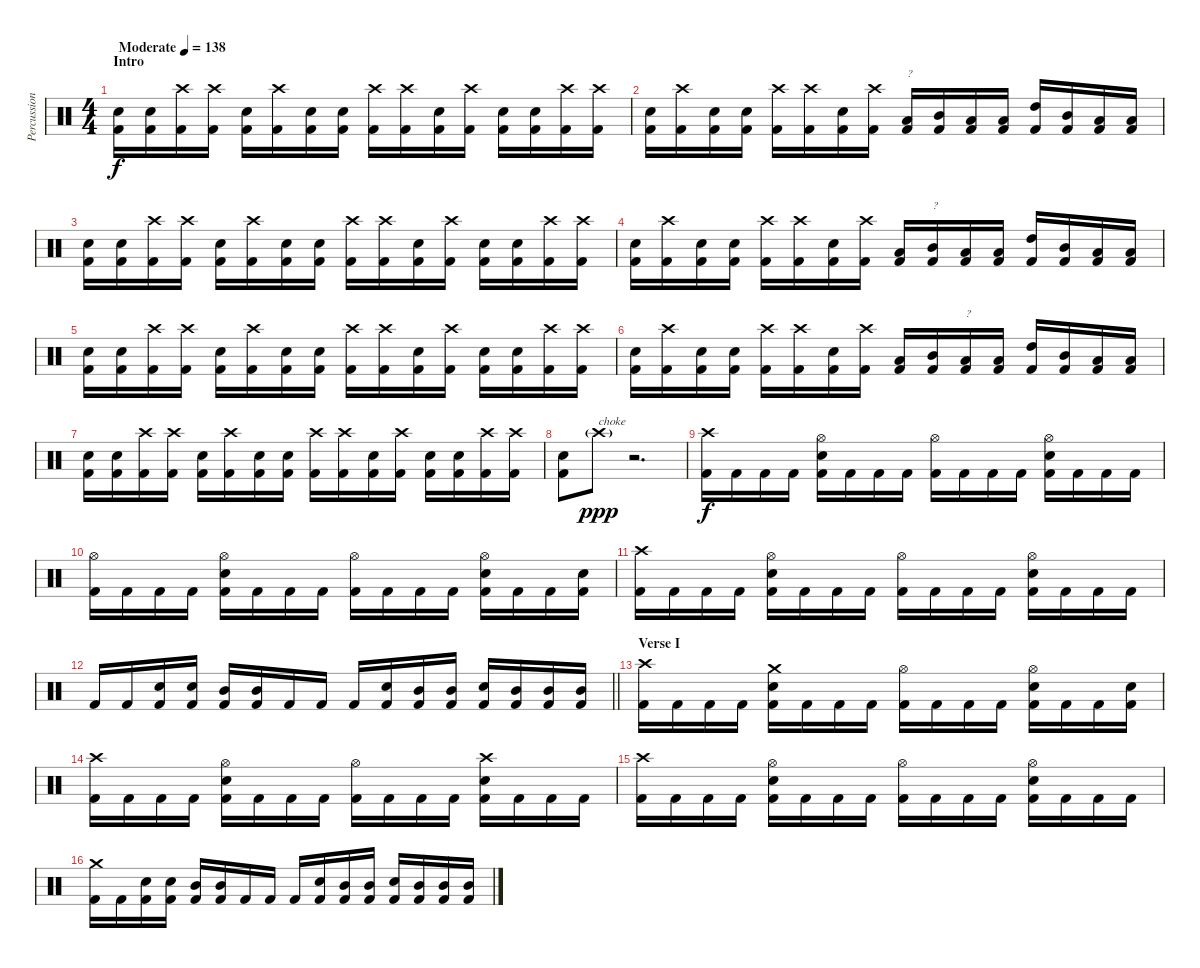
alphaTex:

\track ("Percussion" "Percussion") {instrument percussion}
\staff {score}
\articulation defaults
\ts (4 4)
\section ("" "Intro")
\tempo (138 "Moderate")
\clef neutral
\ks c
("Electric Snare (hit)" "Kick (hit) 2").16{dy f} ("Electric Snare (hit)" "Kick (hit) 2").16 ("Crash high (hit)" "Kick (hit) 2").16 ("Crash high (hit)" "Kick (hit) 2").16 ("Electric Snare (hit)" "Kick (hit) 2").16 ("Crash high (hit)" "Kick (hit) 2").16 ("Electric Snare (hit)" "Kick (hit) 2").16 ("Electric Snare (hit)" "Kick (hit) 2").16 ("Crash high (hit)" "Kick (hit) 2").16 ("Crash high (hit)" "Kick (hit) 2").16 ("Electric Snare (hit)" "Kick (hit) 2").16 ("Crash high (hit)" "Kick (hit) 2").16 ("Electric Snare (hit)" "Kick (hit) 2").16 ("Electric Snare (hit)" "Kick (hit) 2").16 ("Crash high (hit)" "Kick (hit) 2").16 ("Crash high (hit)" "Kick (hit) 2").16 |
("Electric Snare (hit)" "Kick (hit) 2").16 ("Crash high (hit)" "Kick (hit) 2").16 ("Electric Snare (hit)" "Kick (hit) 2").16 ("Electric Snare (hit)" "Kick (hit) 2").16 ("Crash high (hit)" "Kick (hit) 2").16 ("Crash high (hit)" "Kick (hit) 2").16 ("Electric Snare (hit)" "Kick (hit) 2").16 ("Crash high (hit)" "Kick (hit) 2").16 ("Low Tom (hit)" "Kick (hit) 2").16{txt "?"} ("Mid Tom (hit)" "Kick (hit) 2").16 ("Low Tom (hit)" "Kick (hit) 2").16 ("Low Tom (hit)" "Kick (hit) 2").16 ("High Tom (hit)" "Kick (hit) 2").16 ("Mid Tom (hit)" "Kick (hit) 2").16 ("Low Tom (hit)" "Kick (hit) 2").16 ("Low Tom (hit)" "Kick (hit) 2").16 |
("Electric Snare (hit)" "Kick (hit) 2").16 ("Electric Snare (hit)" "Kick (hit) 2").16 ("Crash high (hit)" "Kick (hit) 2").16 ("Crash high (hit)" "Kick (hit) 2").16 ("Electric Snare (hit)" "Kick (hit) 2").16 ("Crash high (hit)" "Kick (hit) 2").16 ("Electric Snare (hit)" "Kick (hit) 2").16 ("Electric Snare (hit)" "Kick (hit) 2").16 ("Crash high (hit)" "Kick (hit) 2").16 ("Crash high (hit)" "Kick (hit) 2").16 ("Electric Snare (hit)" "Kick (hit) 2").16 ("Crash high (hit)" "Kick (hit) 2").16 ("Electric Snare (hit)" "Kick (hit) 2").16 ("Electric Snare (hit)" "Kick (hit) 2").16 ("Crash high (hit)" "Kick (hit) 2").16 ("Crash high (hit)" "Kick (hit) 2").16 |
("Electric Snare (hit)" "Kick (hit) 2").16 ("Crash high (hit)" "Kick (hit) 2").16 ("Electric Snare (hit)" "Kick (hit) 2").16 ("Electric Snare (hit)" "Kick (hit) 2").16 ("Crash high (hit)" "Kick (hit) 2").16 ("Crash high (hit)" "Kick (hit) 2").16 ("Electric Snare (hit)" "Kick (hit) 2").16 ("Crash high (hit)" "Kick (hit) 2").16 ("Low Tom (hit)" "Kick (hit) 2").16 ("Mid Tom (hit)" "Kick (hit) 2").16{txt "?"} ("Low Tom (hit)" "Kick (hit) 2").16 ("Low Tom (hit)" "Kick (hit) 2").16 ("High Tom (hit)" "Kick (hit) 2").16 ("Mid Tom (hit)" "Kick (hit) 2").16 ("Low Tom (hit)" "Kick (hit) 2").16 ("Low Tom (hit)" "Kick (hit) 2").16 |
("Electric Snare (hit)" "Kick (hit) 2").16 ("Electric Snare (hit)" "Kick (hit) 2").16 ("Crash high (hit)" "Kick (hit) 2").16 ("Crash high (hit)" "Kick (hit) 2").16 ("Electric Snare (hit)" "Kick (hit) 2").16 ("Crash high (hit)" "Kick (hit) 2").16 ("Electric Snare (hit)" "Kick (hit) 2").16 ("Electric Snare (hit)" "Kick (hit) 2").16 ("Crash high (hit)" "Kick (hit) 2").16 ("Crash high (hit)" "Kick (hit) 2").16 ("Electric Snare (hit)" "Kick (hit) 2").16 ("Crash high (hit)" "Kick (hit) 2").16 ("Electric Snare (hit)" "Kick (hit) 2").16 ("Electric Snare (hit)" "Kick (hit) 2").16 ("Crash high (hit)" "Kick (hit) 2").16 ("Crash high (hit)" "Kick (hit) 2").16 |
("Electric Snare (hit)" "Kick (hit) 2").16 ("Crash high (hit)" "Kick (hit) 2").16 ("Electric Snare (hit)" "Kick (hit) 2").16 ("Electric Snare (hit)" "Kick (hit) 2").16 ("Crash high (hit)" "Kick (hit) 2").16 ("Crash high (hit)" "Kick (hit) 2").16 ("Electric Snare (hit)" "Kick (hit) 2").16 ("Crash high (hit)" "Kick (hit) 2").16 ("Low Tom (hit)" "Kick (hit) 2").16 ("Mid Tom (hit)" "Kick (hit) 2").16 ("Low Tom (hit)" "Kick (hit) 2").16{txt "?"} ("Low Tom (hit)" "Kick (hit) 2").16 ("High Tom (hit)" "Kick (hit) 2").16 ("Mid Tom (hit)" "Kick (hit) 2").16 ("Low Tom (hit)" "Kick (hit) 2").16 ("Low Tom (hit)" "Kick (hit) 2").16 |
("Electric Snare (hit)" "Kick (hit) 2").16 ("Electric Snare (hit)" "Kick (hit) 2").16 ("Crash high (hit)" "Kick (hit) 2").16 ("Crash high (hit)" "Kick (hit) 2").16 ("Electric Snare (hit)" "Kick (hit) 2").16 ("Crash high (hit)" "Kick (hit) 2").16 ("Electric Snare (hit)" "Kick (hit) 2").16 ("Electric Snare (hit)" "Kick (hit) 2").16 ("Crash high (hit)" "Kick (hit) 2").16 ("Crash high (hit)" "Kick (hit) 2").16 ("Electric Snare (hit)" "Kick (hit) 2").16 ("Crash high (hit)" "Kick (hit) 2").16 ("Electric Snare (hit)" "Kick (hit) 2").16 ("Electric Snare (hit)" "Kick (hit) 2").16 ("Crash high (hit)" "Kick (hit) 2").16 ("Crash high (hit)" "Kick (hit) 2").16 |
("Electric Snare (hit)" "Kick (hit) 2").8 "Crash high (hit)"{g}.8{txt "choke" dy ppp} r.2{d} |
("Crash high (hit)" "Kick (hit) 2").16{dy f} "Kick (hit) 2".16 "Kick (hit) 2".16 "Kick (hit) 2".16 ("Hi-Hat (open)" "Electric Snare (hit)" "Kick (hit) 2").16 "Kick (hit) 2".16 "Kick (hit) 2".16 "Kick (hit) 2".16 ("Hi-Hat (open)" "Kick (hit) 2").16 "Kick (hit) 2".16 "Kick (hit) 2".16 "Kick (hit) 2".16 ("Hi-Hat (open)" "Electric Snare (hit)" "Kick (hit) 2").16 "Kick (hit) 2".16 "Kick (hit) 2".16 "Kick (hit) 2".16 |
("Hi-Hat (open)" "Kick (hit) 2").16 "Kick (hit) 2".16 "Kick (hit) 2".16 "Kick (hit) 2".16 ("Hi-Hat (open)" "Electric Snare (hit)" "Kick (hit) 2").16 "Kick (hit) 2".16 "Kick (hit) 2".16 "Kick (hit) 2".16 ("Hi-Hat (open)" "Kick (hit) 2").16 "Kick (hit) 2".16 "Kick (hit) 2".16 "Kick (hit) 2".16 ("Hi-Hat (open)" "Electric Snare (hit)" "Kick (hit) 2").16 "Kick (hit) 2".16 "Kick (hit) 2".16 ("Electric Snare (hit)" "Kick (hit) 2").16 |
("Crash high (hit)" "Kick (hit) 2").16 "Kick (hit) 2".16 "Kick (hit) 2".16 "Kick (hit) 2".16 ("Hi-Hat (open)" "Electric Snare (hit)" "Kick (hit) 2").16 "Kick (hit) 2".16 "Kick (hit) 2".16 "Kick (hit) 2".16 ("Hi-Hat (open)" "Kick (hit) 2").16 "Kick (hit) 2".16 "Kick (hit) 2".16 "Kick (hit) 2".16 ("Hi-Hat (open)" "Electric Snare (hit)" "Kick (hit) 2").16 "Kick (hit) 2".16 "Kick (hit) 2".16 "Kick (hit) 2".16 |
\barLineRight lightlight "Kick (hit) 2".16 "Kick (hit) 2".16
("Electric Snare (hit)" "Kick (hit) 2").16 ("Electric Snare (hit)" "Kick (hit) 2").16 ("Mid Tom (hit)" "Kick (hit) 2").16 ("Mid Tom (hit)" "Kick (hit) 2").16 "Kick (hit) 2".16 "Kick (hit) 2".16 "Kick (hit) 2".16 ("Electric Snare (hit)" "Kick (hit) 2").16 ("Mid Tom (hit)" "Kick (hit) 2").16 ("Mid Tom (hit)" "Kick (hit) 2").16 ("Electric Snare (hit)" "Kick (hit) 2").16 ("Mid Tom (hit)" "Kick (hit) 2").16 ("Mid Tom (hit)" "Kick (hit) 2").16 ("Mid Tom (hit)" "Kick (hit) 2").16 |
\section ("" "Verse I")
("Crash high (hit)" "Kick (hit) 2").16 "Kick (hit) 2".16 "Kick (hit) 2".16 "Kick (hit) 2".16 ("Crash medium (hit)" "Electric Snare (hit)" "Kick (hit) 2").16 "Kick (hit) 2".16 "Kick (hit) 2".16 "Kick (hit) 2".16 ("Hi-Hat (open)" "Kick (hit) 2").16 "Kick (hit) 2".16 "Kick (hit) 2".16 "Kick (hit) 2".16 ("Hi-Hat (open)" "Electric Snare (hit)" "Kick (hit) 2").16 "Kick (hit) 2".16 "Kick (hit) 2".16 ("Electric Snare (hit)" "Kick (hit) 2").16 |
("Crash high (hit)" "Kick (hit) 2").16 "Kick (hit) 2".16 "Kick (hit) 2".16 "Kick (hit) 2".16 ("Hi-Hat (open)" "Electric Snare (hit)" "Kick (hit) 2").16 "Kick (hit) 2".16 "Kick (hit) 2".16 "Kick (hit) 2".16 ("Hi-Hat (open)" "Kick (hit) 2").16 "Kick (hit) 2".16 "Kick (hit) 2".16 "Kick (hit) 2".16 ("Crash high (hit)" "Electric Snare (hit)" "Kick (hit) 2").16 "Kick (hit) 2".16 "Kick (hit) 2".16 "Kick (hit) 2".16 |
("Crash high (hit)" "Kick (hit) 2").16 "Kick (hit) 2".16 "Kick (hit) 2".16 "Kick (hit) 2".16 ("Hi-Hat (open)" "Electric Snare (hit)" "Kick (hit) 2").16 "Kick (hit) 2".16 "Kick (hit) 2".16 "Kick (hit) 2".16 ("Hi-Hat (open)" "Kick (hit) 2").16 "Kick (hit) 2".16 "Kick (hit) 2".16 "Kick (hit) 2".16 ("Hi-Hat (open)" "Electric Snare (hit)" "Kick (hit) 2").16 "Kick (hit) 2".16 "Kick (hit) 2".16 "Kick (hit) 2".16 |
("Crash medium (hit)" "Kick (hit) 2").16 "Kick (hit) 2".16 ("Electric Snare (hit)" "Kick (hit) 2").16 ("Electric Snare (hit)" "Kick (hit) 2").16 ("Mid Tom (hit)" "Kick (hit) 2").16 ("Mid Tom (hit)" "Kick (hit) 2").16 "Kick (hit) 2".16 "Kick (hit) 2".16 "Kick (hit) 2".16 ("Electric Snare (hit)" "Kick (hit) 2").16 ("Mid Tom (hit)" "Kick (hit) 2").16 ("Mid Tom (hit)" "Kick (hit) 2").16 ("Electric Snare (hit)" "Kick (hit) 2").16 ("Mid Tom (hit)" "Kick (hit) 2").16 ("Mid Tom (hit)" "Kick (hit) 2").16 ("Mid Tom (hit)" "Kick (hit) 2").16
